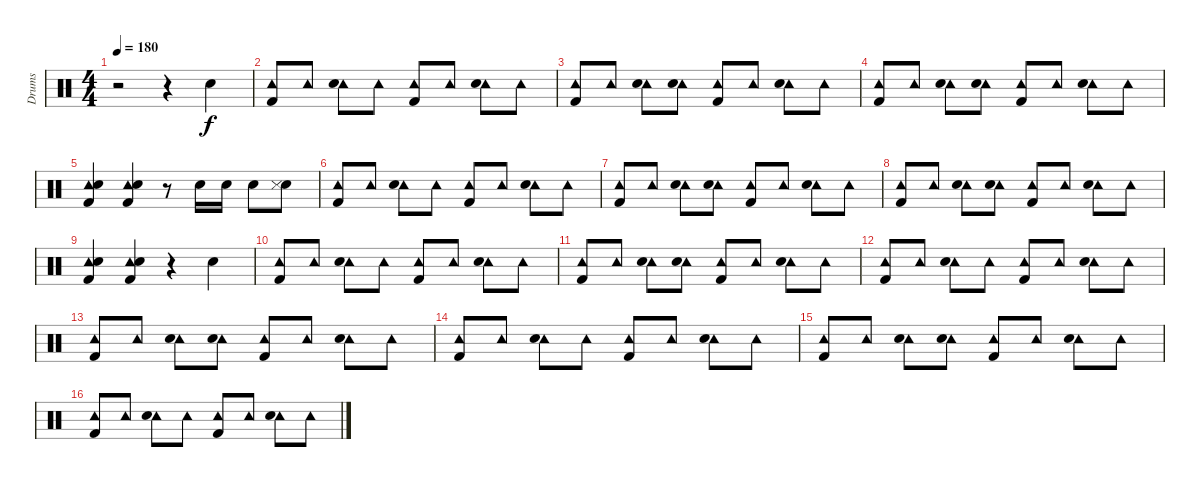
\track ("Drums" "Drums") {instrument percussion}
\staff {score}
\articulation defaults
\ts (4 4)
\tempo 180
\clef neutral
\ks c
r.2{dy f} r.4 "Snare (hit) 2".4 |
("Tambourine (hit)" "Kick (hit) 2").8 "Tambourine (hit)".8 ("Tambourine (hit)" "Snare (hit) 2").8 "Tambourine (hit)".8 ("Tambourine (hit)" "Kick (hit) 2").8 "Tambourine (hit)".8 ("Tambourine (hit)" "Snare (hit) 2").8 "Tambourine (hit)".8 |
("Tambourine (hit)" "Kick (hit) 2").8 "Tambourine (hit)".8 ("Tambourine (hit)" "Snare (hit) 2").8 ("Tambourine (hit)" "Snare (hit) 2").8 ("Tambourine (hit)" "Kick (hit) 2").8 "Tambourine (hit)".8 ("Tambourine (hit)" "Snare (hit) 2").8 "Tambourine (hit)".8 |
("Tambourine (hit)" "Kick (hit) 2").8 "Tambourine (hit)".8 ("Tambourine (hit)" "Snare (hit) 2").8 ("Tambourine (hit)" "Snare (hit) 2").8 ("Tambourine (hit)" "Kick (hit) 2").8 "Tambourine (hit)".8 ("Tambourine (hit)" "Snare (hit) 2").8 "Tambourine (hit)".8 |
("Tambourine (hit)" "Snare (hit) 2" "Kick (hit) 2").4 ("Tambourine (hit)" "Snare (hit) 2" "Kick (hit) 2").4 r.8 "Snare (hit) 2".16 "Snare (hit) 2".16 "Snare (hit) 2".8 ("Snare (hit) 2" "Snare (side stick) 3").8 |
("Tambourine (hit)" "Kick (hit) 2").8 "Tambourine (hit)".8 ("Tambourine (hit)" "Snare (hit) 2").8 "Tambourine (hit)".8 ("Tambourine (hit)" "Kick (hit) 2").8 "Tambourine (hit)".8 ("Tambourine (hit)" "Snare (hit) 2").8 "Tambourine (hit)".8 |
("Tambourine (hit)" "Kick (hit) 2").8 "Tambourine (hit)".8 ("Tambourine (hit)" "Snare (hit) 2").8 ("Tambourine (hit)" "Snare (hit) 2").8 ("Tambourine (hit)" "Kick (hit) 2").8 "Tambourine (hit)".8 ("Tambourine (hit)" "Snare (hit) 2").8 "Tambourine (hit)".8 |
("Tambourine (hit)" "Kick (hit) 2").8 "Tambourine (hit)".8 ("Tambourine (hit)" "Snare (hit) 2").8 ("Tambourine (hit)" "Snare (hit) 2").8 ("Tambourine (hit)" "Kick (hit) 2").8 "Tambourine (hit)".8 ("Tambourine (hit)" "Snare (hit) 2").8 "Tambourine (hit)".8 |
("Tambourine (hit)" "Snare (hit) 2" "Kick (hit) 2").4 ("Tambourine (hit)" "Snare (hit) 2" "Kick (hit) 2").4 r.4 "Snare (hit) 2".4 |
("Tambourine (hit)" "Kick (hit) 2").8 "Tambourine (hit)".8 ("Tambourine (hit)" "Snare (hit) 2").8 "Tambourine (hit)".8 ("Tambourine (hit)" "Kick (hit) 2").8 "Tambourine (hit)".8 ("Tambourine (hit)" "Snare (hit) 2").8 "Tambourine (hit)".8 |
("Tambourine (hit)" "Kick (hit) 2").8 "Tambourine (hit)".8 ("Tambourine (hit)" "Snare (hit) 2").8 ("Tambourine (hit)" "Snare (hit) 2").8 ("Tambourine (hit)" "Kick (hit) 2").8 "Tambourine (hit)".8 ("Tambourine (hit)" "Snare (hit) 2").8 "Tambourine (hit)".8 |
("Tambourine (hit)" "Kick (hit) 2").8 "Tambourine (hit)".8 ("Tambourine (hit)" "Snare (hit) 2").8 "Tambourine (hit)".8 ("Tambourine (hit)" "Kick (hit) 2").8 "Tambourine (hit)".8 ("Tambourine (hit)" "Snare (hit) 2").8 "Tambourine (hit)".8 |
("Tambourine (hit)" "Kick (hit) 2").8 "Tambourine (hit)".8 ("Tambourine (hit)" "Snare (hit) 2").8 ("Tambourine (hit)" "Snare (hit) 2").8 ("Tambourine (hit)" "Kick (hit) 2").8 "Tambourine (hit)".8 ("Tambourine (hit)" "Snare (hit) 2").8 "Tambourine (hit)".8 |
("Tambourine (hit)" "Kick (hit) 2").8 "Tambourine (hit)".8 ("Tambourine (hit)" "Snare (hit) 2").8 "Tambourine (hit)".8 ("Tambourine (hit)" "Kick (hit) 2").8 "Tambourine (hit)".8 ("Tambourine (hit)" "Snare (hit) 2").8 "Tambourine (hit)".8 |
("Tambourine (hit)" "Kick (hit) 2").8 "Tambourine (hit)".8 ("Tambourine (hit)" "Snare (hit) 2").8 ("Tambourine (hit)" "Snare (hit) 2").8 ("Tambourine (hit)" "Kick (hit) 2").8 "Tambourine (hit)".8 ("Tambourine (hit)" "Snare (hit) 2").8 "Tambourine (hit)".8 |
("Tambourine (hit)" "Kick (hit) 2").8 "Tambourine (hit)".8 ("Tambourine (hit)" "Snare (hit) 2").8 "Tambourine (hit)".8 ("Tambourine (hit)" "Kick (hit) 2").8 "Tambourine (hit)".8 ("Tambourine (hit)" "Snare (hit) 2").8 "Tambourine (hit)".8
